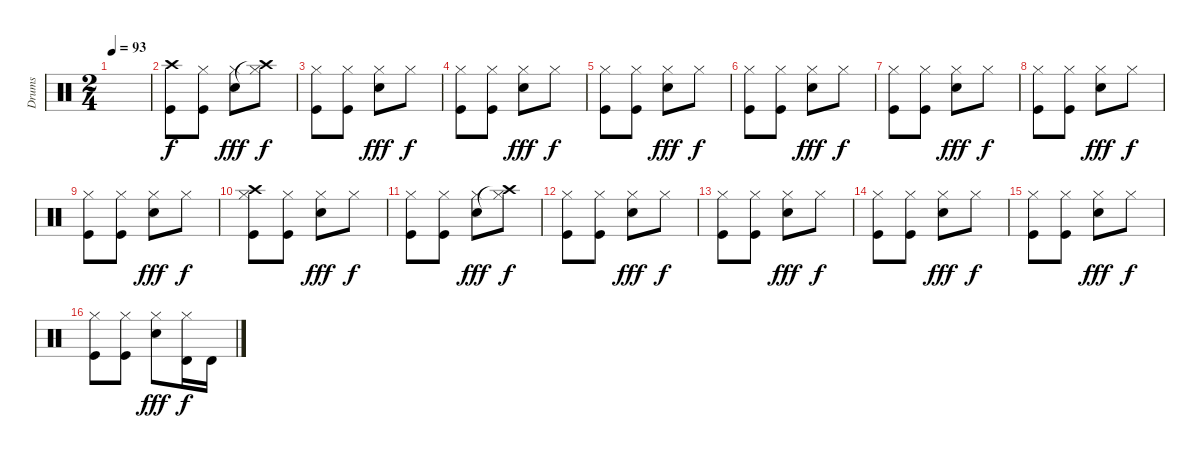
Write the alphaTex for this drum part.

\track ("Drums" "Drums") {instrument percussion}
\staff {score}
\articulation defaults
\ts (2 4)
\tempo 93
\clef neutral
\ks c
|
("Crash high (hit)" "Kick (hit)").8 ("Hi-Hat (closed)" "Kick (hit)").8 ("Hi-Hat (closed)" "Snare (hit) 2").8{dy fff} ("Hi-Hat (closed)" "Crash high (hit)"{t}).8{dy f} |
("Hi-Hat (closed)" "Kick (hit)").8 ("Hi-Hat (closed)" "Kick (hit)").8 ("Hi-Hat (closed)" "Snare (hit) 2").8{dy fff} "Hi-Hat (closed)".8{dy f} |
("Hi-Hat (closed)" "Kick (hit)").8 ("Hi-Hat (closed)" "Kick (hit)").8 ("Hi-Hat (closed)" "Snare (hit) 2").8{dy fff} "Hi-Hat (closed)".8{dy f} |
("Hi-Hat (closed)" "Kick (hit)").8 ("Hi-Hat (closed)" "Kick (hit)").8 ("Hi-Hat (closed)" "Snare (hit) 2").8{dy fff} "Hi-Hat (closed)".8{dy f} |
("Hi-Hat (closed)" "Kick (hit)").8 ("Hi-Hat (closed)" "Kick (hit)").8 ("Hi-Hat (closed)" "Snare (hit) 2").8{dy fff} "Hi-Hat (closed)".8{dy f} |
("Hi-Hat (closed)" "Kick (hit)").8 ("Hi-Hat (closed)" "Kick (hit)").8 ("Hi-Hat (closed)" "Snare (hit) 2").8{dy fff} "Hi-Hat (closed)".8{dy f} |
("Hi-Hat (closed)" "Kick (hit)").8 ("Hi-Hat (closed)" "Kick (hit)").8 ("Hi-Hat (closed)" "Snare (hit) 2").8{dy fff} "Hi-Hat (closed)".8{dy f} |
("Hi-Hat (closed)" "Kick (hit)").8 ("Hi-Hat (closed)" "Kick (hit)").8 ("Hi-Hat (closed)" "Snare (hit) 2").8{dy fff} "Hi-Hat (closed)".8{dy f} |
("Hi-Hat (closed)" "Crash high (hit)" "Kick (hit)").8 ("Hi-Hat (closed)" "Kick (hit)").8 ("Hi-Hat (closed)" "Snare (hit) 2").8{dy fff} "Hi-Hat (closed)".8{dy f} |
("Hi-Hat (closed)" "Kick (hit)").8 ("Hi-Hat (closed)" "Kick (hit)").8 ("Hi-Hat (closed)" "Snare (hit) 2").8{dy fff} ("Hi-Hat (closed)" "Crash high (hit)"{t}).8{dy f} |
("Hi-Hat (closed)" "Kick (hit)").8 ("Hi-Hat (closed)" "Kick (hit)").8 ("Hi-Hat (closed)" "Snare (hit) 2").8{dy fff} "Hi-Hat (closed)".8{dy f} |
("Hi-Hat (closed)" "Kick (hit)").8 ("Hi-Hat (closed)" "Kick (hit)").8 ("Hi-Hat (closed)" "Snare (hit) 2").8{dy fff} "Hi-Hat (closed)".8{dy f} |
("Hi-Hat (closed)" "Kick (hit)").8 ("Hi-Hat (closed)" "Kick (hit)").8 ("Hi-Hat (closed)" "Snare (hit) 2").8{dy fff} "Hi-Hat (closed)".8{dy f} |
("Hi-Hat (closed)" "Kick (hit)").8 ("Hi-Hat (closed)" "Kick (hit)").8 ("Hi-Hat (closed)" "Snare (hit) 2").8{dy fff} "Hi-Hat (closed)".8{dy f} |
("Hi-Hat (closed)" "Kick (hit)").8 ("Hi-Hat (closed)" "Kick (hit)").8 ("Hi-Hat (closed)" "Snare (hit) 2").8{dy fff} ("Hi-Hat (closed)" "Timbale high (hit)").16{dy f} "Timbale high (hit)".16
